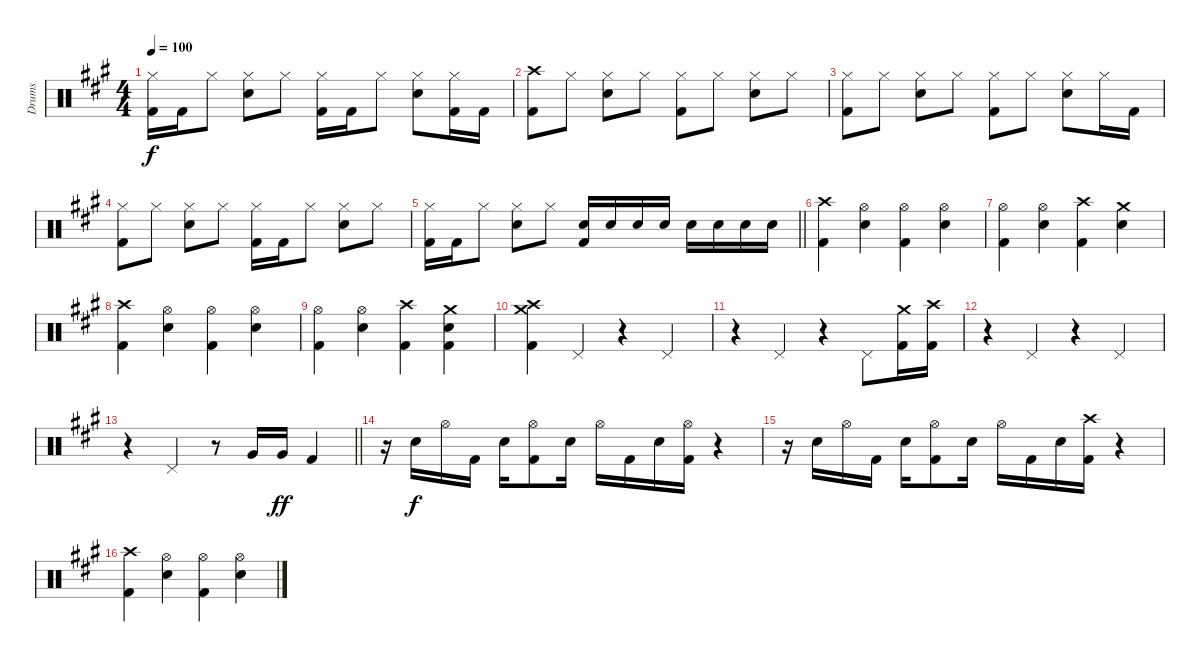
\track ("Drums" "Drums") {instrument percussion}
\staff {score}
\articulation defaults
\ts (4 4)
\tempo 100
\clef neutral
\ks f#minor
("Hi-Hat (closed)" "Kick (hit) 2").16{dy f} "Kick (hit) 2".16 "Hi-Hat (closed)".8 ("Hi-Hat (closed)" "Snare (hit) 2").8 "Hi-Hat (closed)".8 ("Hi-Hat (closed)" "Kick (hit) 2").16 "Kick (hit) 2".16 "Hi-Hat (closed)".8 ("Hi-Hat (closed)" "Snare (hit) 2").8 ("Hi-Hat (closed)" "Kick (hit) 2").16 "Kick (hit) 2".16 |
("Crash high (hit)" "Kick (hit) 2").8 "Hi-Hat (closed)".8 ("Hi-Hat (closed)" "Snare (hit) 2").8 "Hi-Hat (closed)".8 ("Hi-Hat (closed)" "Kick (hit) 2").8 "Hi-Hat (closed)".8 ("Hi-Hat (closed)" "Snare (hit) 2").8 "Hi-Hat (closed)".8 |
("Hi-Hat (closed)" "Kick (hit) 2").8 "Hi-Hat (closed)".8 ("Hi-Hat (closed)" "Snare (hit) 2").8 "Hi-Hat (closed)".8 ("Hi-Hat (closed)" "Kick (hit) 2").8 "Hi-Hat (closed)".8 ("Hi-Hat (closed)" "Snare (hit) 2").8 "Hi-Hat (closed)".16 "Kick (hit) 2".16 |
("Hi-Hat (closed)" "Kick (hit) 2").8 "Hi-Hat (closed)".8 ("Hi-Hat (closed)" "Snare (hit) 2").8 "Hi-Hat (closed)".8 ("Hi-Hat (closed)" "Kick (hit) 2").16 "Kick (hit) 2".16 "Hi-Hat (closed)".8 ("Hi-Hat (closed)" "Snare (hit) 2").8 "Hi-Hat (closed)".8 |
\barLineRight lightlight
("Hi-Hat (closed)" "Kick (hit) 2").16 "Kick (hit) 2".16 "Hi-Hat (closed)".8 ("Hi-Hat (closed)" "Snare (hit) 2").8 "Hi-Hat (closed)".8 ("Snare (hit) 2" "Kick (hit) 2").16 "Snare (hit) 2".16 "Snare (hit) 2".16 "Snare (hit) 2".16 "Snare (hit) 2".16 "Snare (hit) 2".16 "Snare (hit) 2".16 "Snare (hit) 2".16 |
("Crash high (hit)" "Kick (hit) 2").4 ("Hi-Hat (open)" "Snare (hit) 2").4 ("Hi-Hat (open)" "Kick (hit) 2").4 ("Hi-Hat (open)" "Snare (hit) 2").4 |
("Hi-Hat (open)" "Kick (hit) 2").4 ("Hi-Hat (open)" "Snare (hit) 2").4 ("Crash high (hit)" "Kick (hit) 2").4 ("Crash medium (hit)" "Snare (hit) 2").4 |
("Crash high (hit)" "Kick (hit) 2").4 ("Hi-Hat (open)" "Snare (hit) 2").4 ("Hi-Hat (open)" "Kick (hit) 2").4 ("Hi-Hat (open)" "Snare (hit) 2").4 |
("Hi-Hat (open)" "Kick (hit) 2").4 ("Hi-Hat (open)" "Snare (hit) 2").4 ("Crash high (hit)" "Kick (hit) 2").4 ("Crash medium (hit)" "Snare (hit) 2" "Kick (hit) 2").4 |
("Crash high (hit)" "Crash medium (hit)" "Kick (hit) 2").4 "Pedal Hi-Hat (hit)".4 r.4 "Pedal Hi-Hat (hit)".4 |
r.4 "Pedal Hi-Hat (hit)".4 r.4 "Pedal Hi-Hat (hit)".8 ("Crash medium (hit)" "Kick (hit) 2").16 ("Crash high (hit)" "Kick (hit) 2").16 |
r.4 "Pedal Hi-Hat (hit)".4 r.4 "Pedal Hi-Hat (hit)".4 |
\barLineRight lightlight
r.4 "Pedal Hi-Hat (hit)".4 r.8 "Very Low Tom (hit)".16 "Very Low Tom (hit)".16{dy ff} "Kick (hit) 2".4 |
r.16 "Snare (hit) 2".16{dy f} "Hi-Hat (open)".16 "Kick (hit) 2".16 "Snare (hit) 2".16 ("Hi-Hat (open)" "Kick (hit) 2").8 "Snare (hit) 2".16 "Hi-Hat (open)".16 "Kick (hit) 2".16 "Snare (hit) 2".16 ("Hi-Hat (open)" "Kick (hit) 2").16 r.4 |
r.16 "Snare (hit) 2".16 "Hi-Hat (open)".16 "Kick (hit) 2".16 "Snare (hit) 2".16 ("Hi-Hat (open)" "Kick (hit) 2").8 "Snare (hit) 2".16 "Hi-Hat (open)".16 "Kick (hit) 2".16 "Snare (hit) 2".16 ("Crash high (hit)" "Kick (hit) 2").16 r.4 |
("Crash high (hit)" "Kick (hit) 2").4 ("Hi-Hat (open)" "Snare (hit) 2").4 ("Hi-Hat (open)" "Kick (hit) 2").4 ("Hi-Hat (open)" "Snare (hit) 2").4
